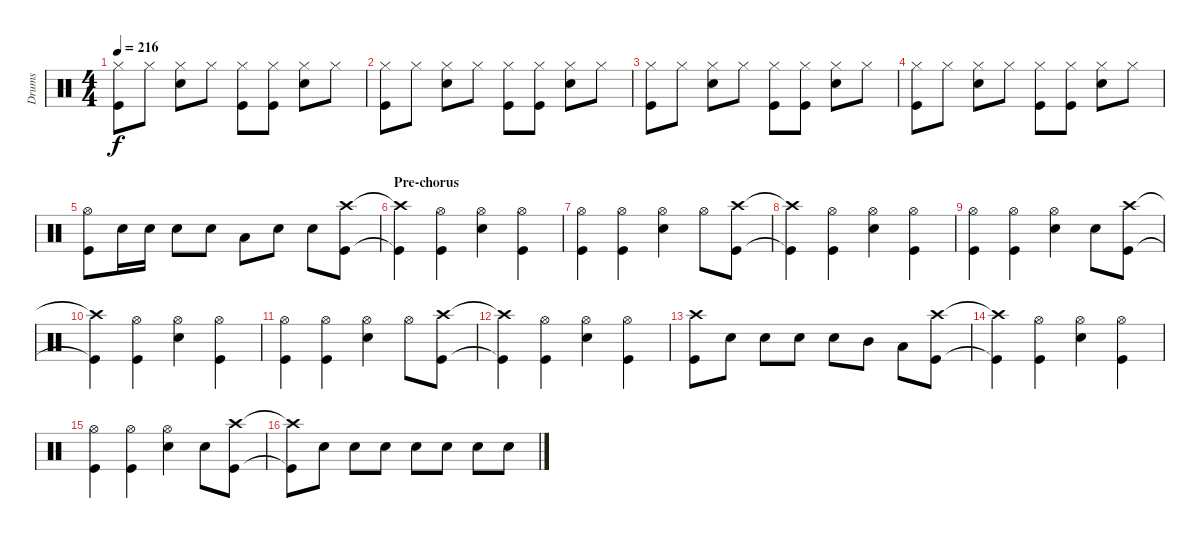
\track ("Drums" "Drums") {instrument percussion}
\staff {score}
\articulation defaults
\ts (4 4)
\tempo 216
\clef neutral
\ks c
("Hi-Hat (closed)" "Kick (hit)").8{dy f} "Hi-Hat (closed)".8 ("Hi-Hat (closed)" "Snare (hit) 2").8 "Hi-Hat (closed)".8 ("Hi-Hat (closed)" "Kick (hit)").8 ("Hi-Hat (closed)" "Kick (hit)").8 ("Hi-Hat (closed)" "Snare (hit) 2").8 "Hi-Hat (closed)".8 |
("Hi-Hat (closed)" "Kick (hit)").8 "Hi-Hat (closed)".8 ("Hi-Hat (closed)" "Snare (hit) 2").8 "Hi-Hat (closed)".8 ("Hi-Hat (closed)" "Kick (hit)").8 ("Hi-Hat (closed)" "Kick (hit)").8 ("Hi-Hat (closed)" "Snare (hit) 2").8 "Hi-Hat (closed)".8 |
("Hi-Hat (closed)" "Kick (hit)").8 "Hi-Hat (closed)".8 ("Hi-Hat (closed)" "Snare (hit) 2").8 "Hi-Hat (closed)".8 ("Hi-Hat (closed)" "Kick (hit)").8 ("Hi-Hat (closed)" "Kick (hit)").8 ("Hi-Hat (closed)" "Snare (hit) 2").8 "Hi-Hat (closed)".8 |
("Hi-Hat (closed)" "Kick (hit)").8 "Hi-Hat (closed)".8 ("Hi-Hat (closed)" "Snare (hit) 2").8 "Hi-Hat (closed)".8 ("Hi-Hat (closed)" "Kick (hit)").8 ("Hi-Hat (closed)" "Kick (hit)").8 ("Hi-Hat (closed)" "Snare (hit) 2").8 "Hi-Hat (closed)".8 |
("Hi-Hat (open)" "Kick (hit)").8 "Snare (hit) 2".16 "Snare (hit) 2".16 "Snare (hit) 2".8 "Snare (hit) 2".8 "Low Tom (hit)".8 "Snare (hit) 2".8 "Snare (hit) 2".8 ("Crash high (hit)" "Kick (hit)").8 |
\section ("" "Pre-chorus")
("Crash high (hit)"{t} "Kick (hit)"{t}).4 ("Hi-Hat (open)" "Kick (hit)").4 ("Hi-Hat (open)" "Snare (hit) 2").4 ("Hi-Hat (open)" "Kick (hit)").4 |
("Hi-Hat (open)" "Kick (hit)").4 ("Hi-Hat (open)" "Kick (hit)").4 ("Hi-Hat (open)" "Snare (hit) 2").4 "Hi-Hat (open)".8 ("Crash high (hit)" "Kick (hit)").8 |
("Crash high (hit)"{t} "Kick (hit)"{t}).4 ("Hi-Hat (open)" "Kick (hit)").4 ("Hi-Hat (open)" "Snare (hit) 2").4 ("Hi-Hat (open)" "Kick (hit)").4 |
("Hi-Hat (open)" "Kick (hit)").4 ("Hi-Hat (open)" "Kick (hit)").4 ("Hi-Hat (open)" "Snare (hit) 2").4 "Snare (hit) 2".8 ("Crash high (hit)" "Kick (hit)").8 |
("Crash high (hit)"{t} "Kick (hit)"{t}).4 ("Hi-Hat (open)" "Kick (hit)").4 ("Hi-Hat (open)" "Snare (hit) 2").4 ("Hi-Hat (open)" "Kick (hit)").4 |
("Hi-Hat (open)" "Kick (hit)").4 ("Hi-Hat (open)" "Kick (hit)").4 ("Hi-Hat (open)" "Snare (hit) 2").4 "Hi-Hat (open)".8 ("Crash high (hit)" "Kick (hit)").8 |
("Crash high (hit)"{t} "Kick (hit)"{t}).4 ("Hi-Hat (open)" "Kick (hit)").4 ("Hi-Hat (open)" "Snare (hit) 2").4 ("Hi-Hat (open)" "Kick (hit)").4 |
("Crash high (hit)" "Kick (hit)").8 "Snare (hit) 2".8 "Snare (hit) 2".8 "Snare (hit) 2".8 "Snare (hit) 2".8 "Mid Tom (hit)".8 "Low Tom (hit)".8 ("Crash high (hit)" "Kick (hit)").8 |
("Crash high (hit)"{t} "Kick (hit)"{t}).4 ("Hi-Hat (open)" "Kick (hit)").4 ("Hi-Hat (open)" "Snare (hit) 2").4 ("Hi-Hat (open)" "Kick (hit)").4 |
("Hi-Hat (open)" "Kick (hit)").4 ("Hi-Hat (open)" "Kick (hit)").4 ("Hi-Hat (open)" "Snare (hit) 2").4 "Snare (hit) 2".8 ("Crash high (hit)" "Kick (hit)").8 |
("Crash high (hit)"{t} "Kick (hit)"{t}).8 "Snare (hit) 2".8 "Snare (hit) 2".8 "Snare (hit) 2".8 "Snare (hit) 2".8 "Snare (hit) 2".8 "Snare (hit) 2".8 "Snare (hit) 2".8
